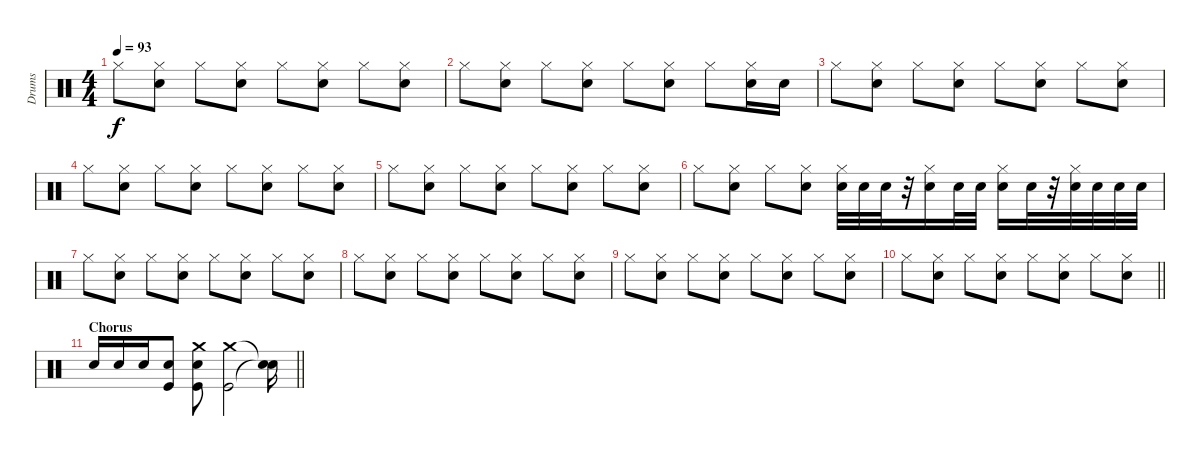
\track ("Drums" "Drums") {instrument percussion}
\staff {score}
\articulation defaults
\ts (4 4)
\tempo 93
\clef neutral
\ks c "Hi-Hat (closed)".8{dy f}
("Hi-Hat (closed)" "Snare (hit) 2").8 "Hi-Hat (closed)".8 ("Hi-Hat (closed)" "Snare (hit) 2").8 "Hi-Hat (closed)".8 ("Hi-Hat (closed)" "Snare (hit) 2").8 "Hi-Hat (closed)".8 ("Hi-Hat (closed)" "Snare (hit) 2").8 |
"Hi-Hat (closed)".8 ("Hi-Hat (closed)" "Snare (hit) 2").8 "Hi-Hat (closed)".8 ("Hi-Hat (closed)" "Snare (hit) 2").8 "Hi-Hat (closed)".8 ("Hi-Hat (closed)" "Snare (hit) 2").8 "Hi-Hat (closed)".8 ("Hi-Hat (closed)" "Electric Snare (hit)").16 "Electric Snare (hit)".16 |
"Hi-Hat (closed)".8 ("Hi-Hat (closed)" "Snare (hit) 2").8 "Hi-Hat (closed)".8 ("Hi-Hat (closed)" "Snare (hit) 2").8 "Hi-Hat (closed)".8 ("Hi-Hat (closed)" "Snare (hit) 2").8 "Hi-Hat (closed)".8 ("Hi-Hat (closed)" "Snare (hit) 2").8 |
"Hi-Hat (closed)".8 ("Hi-Hat (closed)" "Snare (hit) 2").8 "Hi-Hat (closed)".8 ("Hi-Hat (closed)" "Snare (hit) 2").8 "Hi-Hat (closed)".8 ("Hi-Hat (closed)" "Snare (hit) 2").8 "Hi-Hat (closed)".8 ("Hi-Hat (closed)" "Snare (hit) 2").8 |
"Hi-Hat (closed)".8 ("Hi-Hat (closed)" "Snare (hit) 2").8 "Hi-Hat (closed)".8 ("Hi-Hat (closed)" "Snare (hit) 2").8 "Hi-Hat (closed)".8 ("Hi-Hat (closed)" "Snare (hit) 2").8 "Hi-Hat (closed)".8 ("Hi-Hat (closed)" "Snare (hit) 2").8 |
"Hi-Hat (closed)".8 ("Hi-Hat (closed)" "Snare (hit) 2").8 "Hi-Hat (closed)".8 ("Hi-Hat (closed)" "Snare (hit) 2").8 ("Hi-Hat (closed)" "Snare (hit) 2").32 "Snare (hit) 2".32 "Snare (hit) 2".32 r.32 ("Hi-Hat (closed)" "Snare (hit) 2").16 "Snare (hit) 2".32 "Snare (hit) 2".32 ("Hi-Hat (closed)" "Snare (hit) 2").16 "Snare (hit) 2".32 r.32 ("Hi-Hat (closed)" "Snare (hit) 2").32 "Snare (hit) 2".32 "Snare (hit) 2".32 "Snare (hit) 2".32 |
"Hi-Hat (closed)".8 ("Hi-Hat (closed)" "Snare (hit) 2").8 "Hi-Hat (closed)".8 ("Hi-Hat (closed)" "Snare (hit) 2").8 "Hi-Hat (closed)".8 ("Hi-Hat (closed)" "Snare (hit) 2").8 "Hi-Hat (closed)".8 ("Hi-Hat (closed)" "Snare (hit) 2").8 |
"Hi-Hat (closed)".8 ("Hi-Hat (closed)" "Snare (hit) 2").8 "Hi-Hat (closed)".8 ("Hi-Hat (closed)" "Snare (hit) 2").8 "Hi-Hat (closed)".8 ("Hi-Hat (closed)" "Snare (hit) 2").8 "Hi-Hat (closed)".8 ("Hi-Hat (closed)" "Snare (hit) 2").8 |
"Hi-Hat (closed)".8 ("Hi-Hat (closed)" "Snare (hit) 2").8 "Hi-Hat (closed)".8 ("Hi-Hat (closed)" "Snare (hit) 2").8 "Hi-Hat (closed)".8 ("Hi-Hat (closed)" "Snare (hit) 2").8 "Hi-Hat (closed)".8 ("Hi-Hat (closed)" "Snare (hit) 2").8 |
\barLineRight lightlight "Hi-Hat (closed)".8
("Hi-Hat (closed)" "Snare (hit) 2").8 "Hi-Hat (closed)".8 ("Hi-Hat (closed)" "Snare (hit) 2").8 "Hi-Hat (closed)".8 ("Hi-Hat (closed)" "Snare (hit) 2").8 "Hi-Hat (closed)".8 ("Hi-Hat (closed)" "Snare (hit) 2").8 |
\section ("" "Chorus")
\barLineRight lightlight "Electric Snare (hit)".16 "Electric Snare (hit)".16 "Electric Snare (hit)".16
("Electric Snare (hit)" "Kick (hit)").8 ("Electric Snare (hit)" "Kick (hit)" "Crash medium (hit)").8 ("Kick (hit)" "Crash medium (hit)").2 ("Snare (hit)"{t} "Snare (hit)"{t}).16
